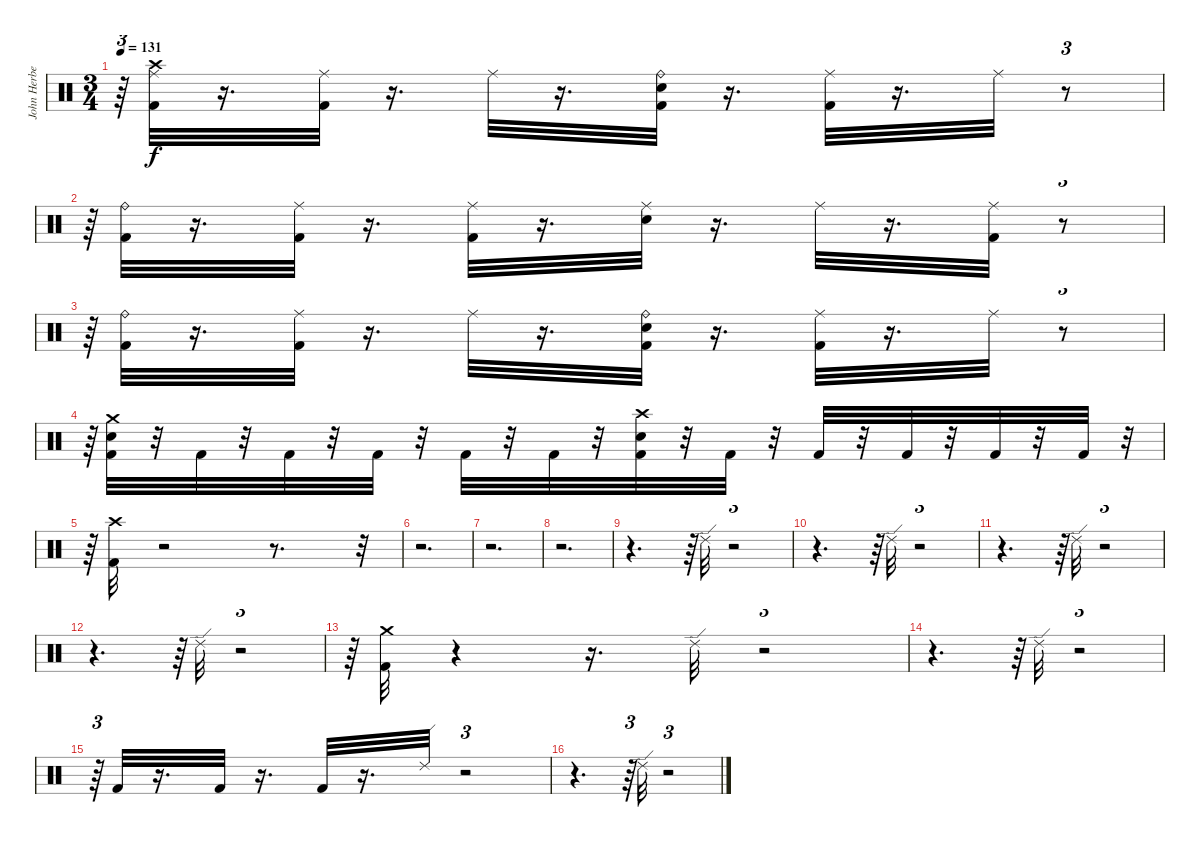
\track ("John Herbert" "John Herbe") {instrument percussion}
\staff {score}
\articulation defaults
\ts (3 4)
\tempo 131
\clef neutral
\ks c
r.64{tu (3 2) dy f} ("Crash high (hit)" "Kick (hit) 2" "Ride (middle)").32 r.16{d} ("Kick (hit) 2" "Ride (middle)").32 r.16{d} "Ride (middle)".32 r.16{d} ("Kick (hit) 2" "Snare (hit) 2" "Ride (bell)").32 r.16{d} ("Kick (hit) 2" "Ride (middle)").32 r.16{d} "Ride (middle)".32 r.8{tu (3 2)} |
r.64{tu (3 2)} ("Kick (hit) 2" "Ride (bell)").32 r.16{d} ("Kick (hit) 2" "Ride (middle)").32 r.16{d} ("Kick (hit) 2" "Ride (middle)").32 r.16{d} ("Snare (hit) 2" "Ride (middle)").32 r.16{d} "Ride (middle)".32 r.16{d} ("Kick (hit) 2" "Ride (middle)").32 r.8{tu (3 2)} |
r.64{tu (3 2)} ("Kick (hit) 2" "Ride (bell)").32 r.16{d} ("Kick (hit) 2" "Ride (middle)").32 r.16{d} "Ride (middle)".32 r.16{d} ("Kick (hit) 2" "Snare (hit) 2" "Ride (bell)").32 r.16{d} ("Kick (hit) 2" "Ride (middle)").32 r.16{d} "Ride (middle)".32 r.8{tu (3 2)} |
r.64{tu (3 2)} ("Snare (hit) 2" "Kick (hit) 2" "Crash medium (hit)").32 r.32 "Kick (hit) 2".32 r.32 "Kick (hit) 2".32 r.32 "Kick (hit) 2".32 r.32 "Kick (hit) 2".32 r.32 "Kick (hit) 2".32 r.32 ("Crash high (hit)" "Snare (hit) 2" "Kick (hit) 2").32 r.32 "Kick (hit) 2".32 r.32 "Kick (hit) 2".32 r.32 "Kick (hit) 2".32 r.32 "Kick (hit) 2".32 r.32 "Kick (hit) 2".32 r.32{tu (3 2)} |
r.64{tu (3 2)} ("Crash high (hit)" "Kick (hit) 2").32 r.2 r.8{d} r.32{tu (3 2)} |
r.2{d} |
r.2{d} |
r.2{d} |
r.4{d} r.64{tu (3 2)} "Ride (edge) 2".32 r.2{tu (3 2)} |
r.4{d} r.64{tu (3 2)} "Ride (edge) 2".32 r.2{tu (3 2)} |
r.4{d} r.64{tu (3 2)} "Ride (edge) 2".32 r.2{tu (3 2)} |
r.4{d} r.64{tu (3 2)} "Ride (edge) 2".32 r.2{tu (3 2)} |
r.64{tu (3 2)} ("Kick (hit) 2" "Crash medium (hit)").32 r.4 r.16{d} "Ride (edge) 2".32 r.2{tu (3 2)} |
r.4{d} r.64{tu (3 2)} "Ride (edge) 2".32 r.2{tu (3 2)} |
r.64{tu (3 2)} "Kick (hit) 2".32 r.16{d} "Kick (hit) 2".32 r.16{d} "Kick (hit) 2".32 r.16{d} "Ride (edge) 2".32 r.2{tu (3 2)} |
r.4{d} r.64{tu (3 2)} "Ride (edge) 2".32 r.2{tu (3 2)}
